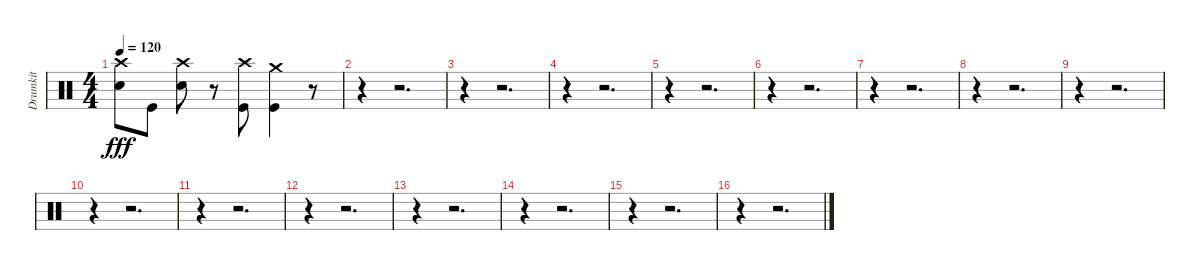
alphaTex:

\track ("Drumkit" "Drumkit") {instrument percussion}
\staff {score}
\articulation defaults
\ts (4 4)
\tempo 120
\clef neutral
\ks c
("Snare (hit) 2" "Crash high (hit)").8{dy fff} "Kick (hit)".8 ("Crash high (hit)" "Snare (hit) 2").8 r.8 ("Kick (hit)" "Crash high (hit)").8 ("Kick (hit)" "Crash medium (hit)").4 r.8 |
r.4 r.2{d} |
r.4 r.2{d} |
r.4 r.2{d} |
r.4 r.2{d} |
r.4 r.2{d} |
r.4 r.2{d} |
r.4 r.2{d} |
r.4 r.2{d} |
r.4 r.2{d} |
r.4 r.2{d} |
r.4 r.2{d} |
r.4 r.2{d} |
r.4 r.2{d} |
r.4 r.2{d} |
r.4 r.2{d}
